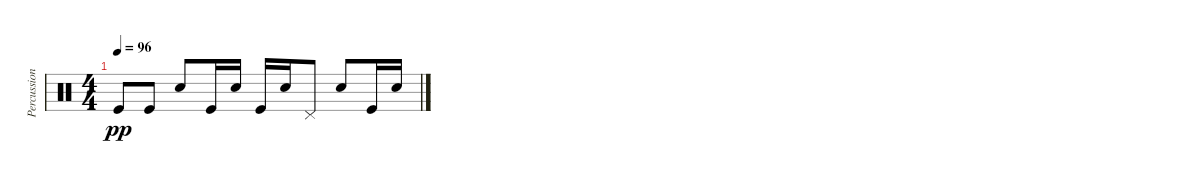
\track ("Percussion" "Percussion") {instrument percussion}
\staff {score}
\articulation defaults
\ts (4 4)
\tempo 96
\clef neutral
\ks c "Kick (hit)".8{dy pp} "Kick (hit)".8 "Hand Clap (hit)".8 "Kick (hit)".16 "Hand Clap (hit)".16 "Kick (hit)".16 "Hand Clap (hit)".16 "Pedal Hi-Hat (hit)".8 "Hand Clap (hit)".8 "Kick (hit)".16 "Hand Clap (hit)".16
